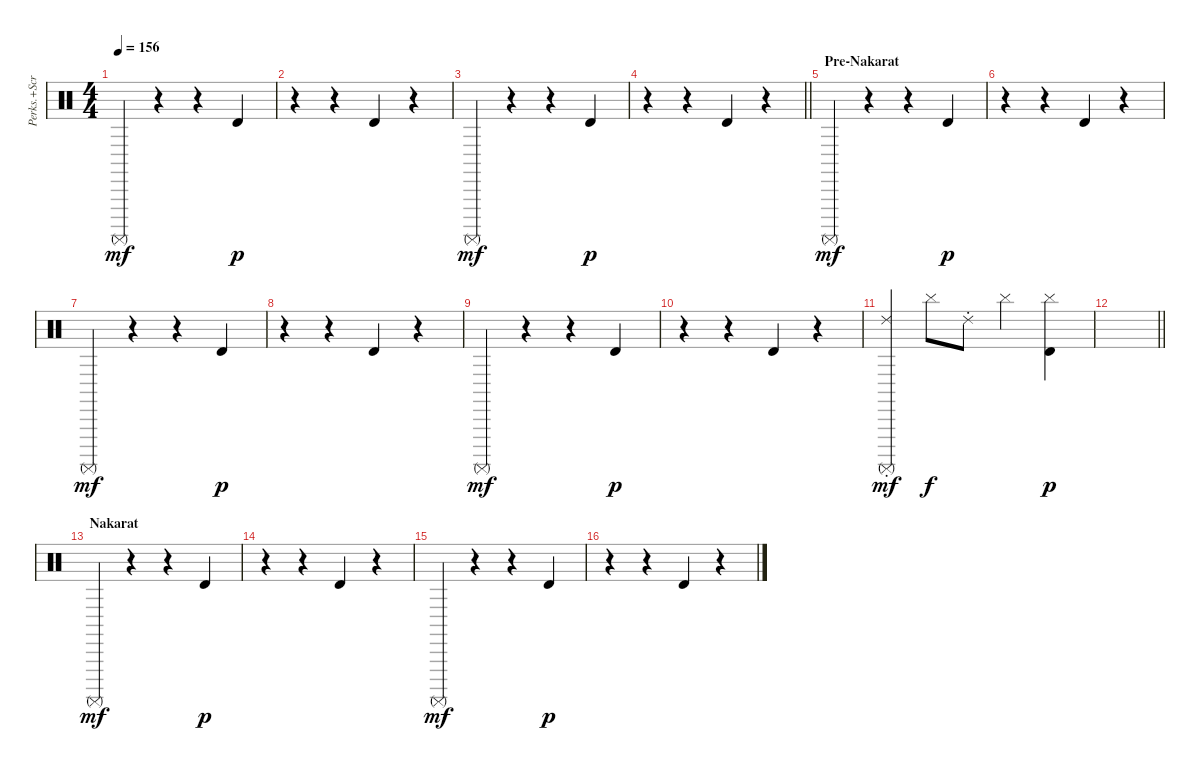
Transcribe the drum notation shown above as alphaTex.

\track ("Perks.+Scratch" "Perks.+Scr") {instrument percussion}
\staff {score}
\articulation defaults
\ts (4 4)
\tempo 156
\clef neutral
\ks c "Surdo (mute)".4{dy mf}
r.4 r.4 "Timbale high (hit)".4{dy p} |
r.4 r.4 "Timbale high (hit)".4 r.4 |
"Surdo (mute)".4{dy mf} r.4 r.4 "Timbale high (hit)".4{dy p} |
\barLineRight lightlight
r.4 r.4 "Timbale high (hit)".4 r.4 |
\section ("" "Pre-Nakarat")
"Surdo (mute)".4{dy mf} r.4 r.4 "Timbale high (hit)".4{dy p} |
r.4 r.4 "Timbale high (hit)".4 r.4 |
"Surdo (mute)".4{dy mf} r.4 r.4 "Timbale high (hit)".4{dy p} |
r.4 r.4 "Timbale high (hit)".4 r.4 |
"Surdo (mute)".4{dy mf} r.4 r.4 "Timbale high (hit)".4{dy p} |
r.4 r.4 "Timbale high (hit)".4 r.4 |
("Ride (choke) 2" "Surdo (mute)").4{dy mf} "Cymbal (hit)".8{dy f} "Ride (choke) 2".8 "Cymbal (hit)".4 ("Cymbal (hit)" "Timbale high (hit)").4{dy p} |
\barLineRight lightlight
|
\section ("" "Nakarat")
"Surdo (mute)".4{dy mf} r.4 r.4 "Timbale high (hit)".4{dy p} |
r.4 r.4 "Timbale high (hit)".4 r.4 |
"Surdo (mute)".4{dy mf} r.4 r.4 "Timbale high (hit)".4{dy p} |
r.4 r.4 "Timbale high (hit)".4 r.4
